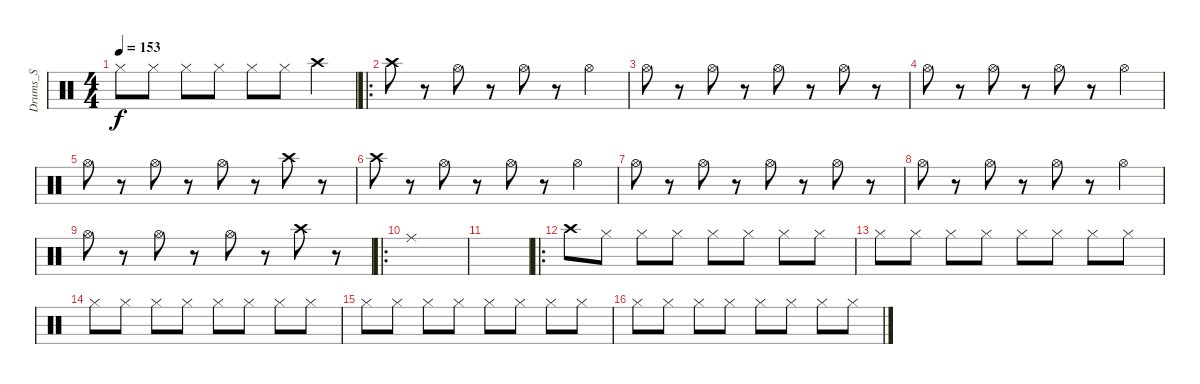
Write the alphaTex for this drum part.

\track ("Drums_S" "Drums_S") {instrument percussion}
\staff {score}
\articulation defaults
\ts (4 4)
\tempo 153
\clef neutral
\ks c "Hi-Hat (closed)".8{dy f} "Hi-Hat (closed)".8 "Hi-Hat (closed)".8 "Hi-Hat (closed)".8 "Hi-Hat (closed)".8 "Hi-Hat (closed)".8 "Crash high (hit)".4
|
\ro "Crash high (hit)".8
r.8 "Hi-Hat (open)".8 r.8 "Hi-Hat (open)".8 r.8 "Hi-Hat (open)".4 |
"Hi-Hat (open)".8 r.8 "Hi-Hat (open)".8 r.8 "Hi-Hat (open)".8 r.8 "Hi-Hat (open)".8 r.8 |
"Hi-Hat (open)".8 r.8 "Hi-Hat (open)".8 r.8 "Hi-Hat (open)".8 r.8 "Hi-Hat (open)".4 |
"Hi-Hat (open)".8 r.8 "Hi-Hat (open)".8 r.8 "Hi-Hat (open)".8 r.8 "Crash high (hit)".8 r.8 |
"Crash high (hit)".8 r.8 "Hi-Hat (open)".8 r.8 "Hi-Hat (open)".8 r.8 "Hi-Hat (open)".4 |
"Hi-Hat (open)".8 r.8 "Hi-Hat (open)".8 r.8 "Hi-Hat (open)".8 r.8 "Hi-Hat (open)".8 r.8 |
"Hi-Hat (open)".8 r.8 "Hi-Hat (open)".8 r.8 "Hi-Hat (open)".8 r.8 "Hi-Hat (open)".4 |
"Hi-Hat (open)".8 r.8 "Hi-Hat (open)".8 r.8 "Hi-Hat (open)".8 r.8 "Crash high (hit)".8 r.8 |
\ro "Ride (middle)".1
|
|
\ro "Crash high (hit)".8 "Hi-Hat (closed)".8 "Hi-Hat (closed)".8 "Hi-Hat (closed)".8 "Hi-Hat (closed)".8 "Hi-Hat (closed)".8 "Hi-Hat (closed)".8 "Hi-Hat (closed)".8
|
"Hi-Hat (closed)".8 "Hi-Hat (closed)".8 "Hi-Hat (closed)".8 "Hi-Hat (closed)".8 "Hi-Hat (closed)".8 "Hi-Hat (closed)".8 "Hi-Hat (closed)".8 "Hi-Hat (closed)".8 |
"Hi-Hat (closed)".8 "Hi-Hat (closed)".8 "Hi-Hat (closed)".8 "Hi-Hat (closed)".8 "Hi-Hat (closed)".8 "Hi-Hat (closed)".8 "Hi-Hat (closed)".8 "Hi-Hat (closed)".8 |
"Hi-Hat (closed)".8 "Hi-Hat (closed)".8 "Hi-Hat (closed)".8 "Hi-Hat (closed)".8 "Hi-Hat (closed)".8 "Hi-Hat (closed)".8 "Hi-Hat (closed)".8 "Hi-Hat (closed)".8 |
"Hi-Hat (closed)".8 "Hi-Hat (closed)".8 "Hi-Hat (closed)".8 "Hi-Hat (closed)".8 "Hi-Hat (closed)".8 "Hi-Hat (closed)".8 "Hi-Hat (closed)".8 "Hi-Hat (closed)".8
